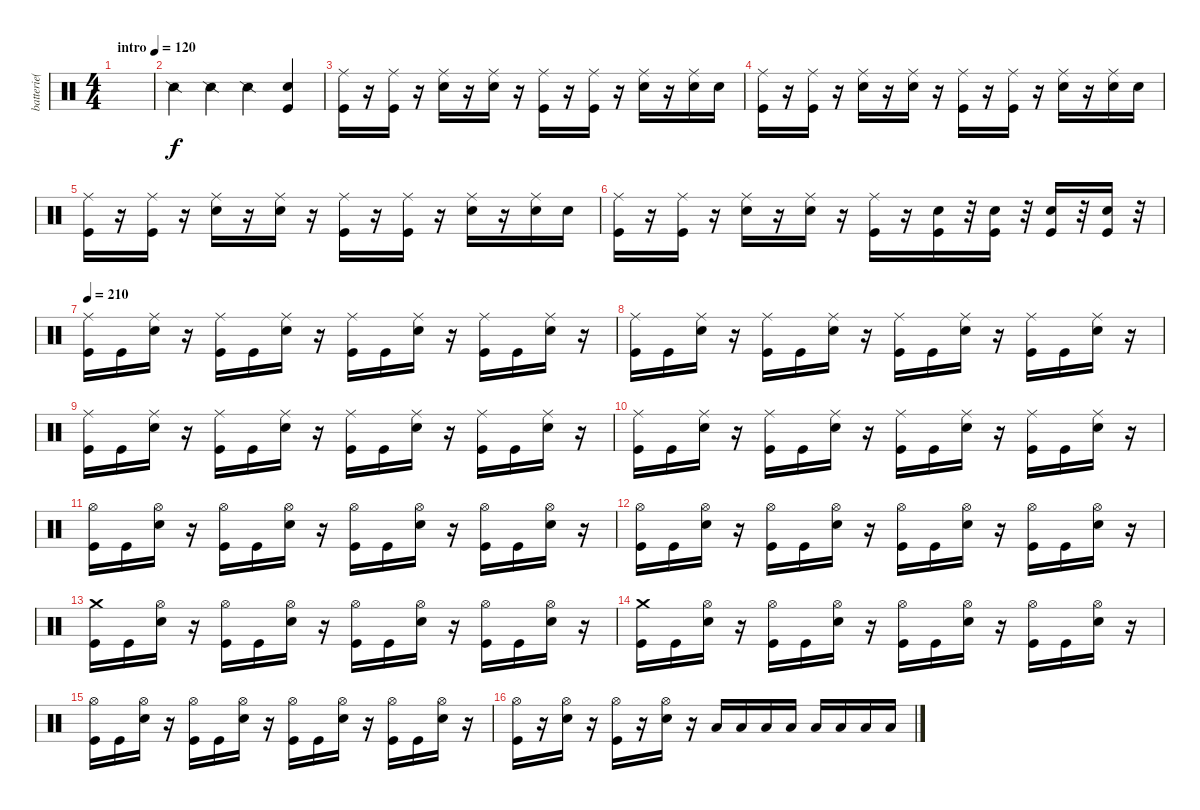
\track ("batterie( Rob )" "batterie( ") {instrument percussion}
\staff {score}
\articulation defaults
\ts (4 4)
\tempo (120 "intro")
\clef neutral
\ks c
|
"Snare (side stick) 2".4 "Snare (side stick) 2".4 "Snare (side stick) 2".4 ("Snare (hit) 2" "Kick (hit)").4 |
("Ride (middle)" "Kick (hit)").16 r.16 ("Ride (middle)" "Kick (hit)").16 r.16 ("Ride (middle)" "Snare (hit) 2").16 r.16 ("Ride (middle)" "Snare (hit) 2").16 r.16 ("Ride (middle)" "Kick (hit)").16 r.16 ("Ride (middle)" "Kick (hit)").16 r.16 ("Ride (middle)" "Snare (hit) 2").16 r.16 ("Ride (middle)" "Snare (hit) 2").16 "Snare (hit) 2".16 |
("Ride (middle)" "Kick (hit)").16 r.16 ("Ride (middle)" "Kick (hit)").16 r.16 ("Ride (middle)" "Snare (hit) 2").16 r.16 ("Ride (middle)" "Snare (hit) 2").16 r.16 ("Ride (middle)" "Kick (hit)").16 r.16 ("Ride (middle)" "Kick (hit)").16 r.16 ("Ride (middle)" "Snare (hit) 2").16 r.16 ("Ride (middle)" "Snare (hit) 2").16 "Snare (hit) 2".16 |
("Ride (middle)" "Kick (hit)").16 r.16 ("Ride (middle)" "Kick (hit)").16 r.16 ("Ride (middle)" "Snare (hit) 2").16 r.16 ("Ride (middle)" "Snare (hit) 2").16 r.16 ("Ride (middle)" "Kick (hit)").16 r.16 ("Ride (middle)" "Kick (hit)").16 r.16 ("Ride (middle)" "Snare (hit) 2").16 r.16 ("Ride (middle)" "Snare (hit) 2").16 "Snare (hit) 2".16 |
("Ride (middle)" "Kick (hit)").16 r.16 ("Ride (middle)" "Kick (hit)").16 r.16 ("Ride (middle)" "Snare (hit) 2").16 r.16 ("Ride (middle)" "Snare (hit) 2").16 r.16 ("Ride (middle)" "Kick (hit)").16 r.16 ("Snare (hit) 2" "Kick (hit)").16 r.32 ("Snare (hit) 2" "Kick (hit)").16 r.32 ("Snare (hit) 2" "Kick (hit)").16 r.32 ("Snare (hit) 2" "Kick (hit)").16 r.32 |
\tempo 210
("Ride (middle)" "Kick (hit)").16 "Kick (hit)".16 ("Ride (middle)" "Snare (hit) 2").16 r.16 ("Ride (middle)" "Kick (hit)").16 "Kick (hit)".16 ("Ride (middle)" "Snare (hit) 2").16 r.16 ("Ride (middle)" "Kick (hit)").16 "Kick (hit)".16 ("Ride (middle)" "Snare (hit) 2").16 r.16 ("Ride (middle)" "Kick (hit)").16 "Kick (hit)".16 ("Ride (middle)" "Snare (hit) 2").16 r.16 |
("Ride (middle)" "Kick (hit)").16 "Kick (hit)".16 ("Ride (middle)" "Snare (hit) 2").16 r.16 ("Ride (middle)" "Kick (hit)").16 "Kick (hit)".16 ("Ride (middle)" "Snare (hit) 2").16 r.16 ("Ride (middle)" "Kick (hit)").16 "Kick (hit)".16 ("Ride (middle)" "Snare (hit) 2").16 r.16 ("Ride (middle)" "Kick (hit)").16 "Kick (hit)".16 ("Ride (middle)" "Snare (hit) 2").16 r.16 |
("Ride (middle)" "Kick (hit)").16 "Kick (hit)".16 ("Ride (middle)" "Snare (hit) 2").16 r.16 ("Ride (middle)" "Kick (hit)").16 "Kick (hit)".16 ("Ride (middle)" "Snare (hit) 2").16 r.16 ("Ride (middle)" "Kick (hit)").16 "Kick (hit)".16 ("Ride (middle)" "Snare (hit) 2").16 r.16 ("Ride (middle)" "Kick (hit)").16 "Kick (hit)".16 ("Ride (middle)" "Snare (hit) 2").16 r.16 |
("Ride (middle)" "Kick (hit)").16 "Kick (hit)".16 ("Ride (middle)" "Snare (hit) 2").16 r.16 ("Ride (middle)" "Kick (hit)").16 "Kick (hit)".16 ("Ride (middle)" "Snare (hit) 2").16 r.16 ("Ride (middle)" "Kick (hit)").16 "Kick (hit)".16 ("Ride (middle)" "Snare (hit) 2").16 r.16 ("Ride (middle)" "Kick (hit)").16 "Kick (hit)".16 ("Ride (middle)" "Snare (hit) 2").16 r.16 |
("Hi-Hat (open)" "Kick (hit)").16 "Kick (hit)".16 ("Hi-Hat (open)" "Snare (hit) 2").16 r.16 ("Hi-Hat (open)" "Kick (hit)").16 "Kick (hit)".16 ("Hi-Hat (open)" "Snare (hit) 2").16 r.16 ("Hi-Hat (open)" "Kick (hit)").16 "Kick (hit)".16 ("Hi-Hat (open)" "Snare (hit) 2").16 r.16 ("Hi-Hat (open)" "Kick (hit)").16 "Kick (hit)".16 ("Hi-Hat (open)" "Snare (hit) 2").16 r.16 |
("Hi-Hat (open)" "Kick (hit)").16 "Kick (hit)".16 ("Hi-Hat (open)" "Snare (hit) 2").16 r.16 ("Hi-Hat (open)" "Kick (hit)").16 "Kick (hit)".16 ("Hi-Hat (open)" "Snare (hit) 2").16 r.16 ("Hi-Hat (open)" "Kick (hit)").16 "Kick (hit)".16 ("Hi-Hat (open)" "Snare (hit) 2").16 r.16 ("Hi-Hat (open)" "Kick (hit)").16 "Kick (hit)".16 ("Hi-Hat (open)" "Snare (hit) 2").16 r.16 |
("Crash medium (hit)" "Kick (hit)").16 "Kick (hit)".16 ("Hi-Hat (open)" "Snare (hit) 2").16 r.16 ("Hi-Hat (open)" "Kick (hit)").16 "Kick (hit)".16 ("Hi-Hat (open)" "Snare (hit) 2").16 r.16 ("Hi-Hat (open)" "Kick (hit)").16 "Kick (hit)".16 ("Hi-Hat (open)" "Snare (hit) 2").16 r.16 ("Hi-Hat (open)" "Kick (hit)").16 "Kick (hit)".16 ("Hi-Hat (open)" "Snare (hit) 2").16 r.16 |
("Crash medium (hit)" "Kick (hit)").16 "Kick (hit)".16 ("Hi-Hat (open)" "Snare (hit) 2").16 r.16 ("Hi-Hat (open)" "Kick (hit)").16 "Kick (hit)".16 ("Hi-Hat (open)" "Snare (hit) 2").16 r.16 ("Hi-Hat (open)" "Kick (hit)").16 "Kick (hit)".16 ("Hi-Hat (open)" "Snare (hit) 2").16 r.16 ("Hi-Hat (open)" "Kick (hit)").16 "Kick (hit)".16 ("Hi-Hat (open)" "Snare (hit) 2").16 r.16 |
("Hi-Hat (open)" "Kick (hit)").16 "Kick (hit)".16 ("Hi-Hat (open)" "Snare (hit) 2").16 r.16 ("Hi-Hat (open)" "Kick (hit)").16 "Kick (hit)".16 ("Hi-Hat (open)" "Snare (hit) 2").16 r.16 ("Hi-Hat (open)" "Kick (hit)").16 "Kick (hit)".16 ("Hi-Hat (open)" "Snare (hit) 2").16 r.16 ("Hi-Hat (open)" "Kick (hit)").16 "Kick (hit)".16 ("Hi-Hat (open)" "Snare (hit) 2").16 r.16 |
("Hi-Hat (open)" "Kick (hit)").16 r.16 ("Hi-Hat (open)" "Snare (hit) 2").16 r.16 ("Hi-Hat (open)" "Kick (hit)").16 r.16 ("Hi-Hat (open)" "Snare (hit) 2").16 r.16 "Low Floor Tom (hit)".16 "Low Floor Tom (hit)".16 "Low Floor Tom (hit)".16 "Low Floor Tom (hit)".16 "Low Floor Tom (hit)".16 "Low Floor Tom (hit)".16 "Low Floor Tom (hit)".16 "Low Floor Tom (hit)".16
